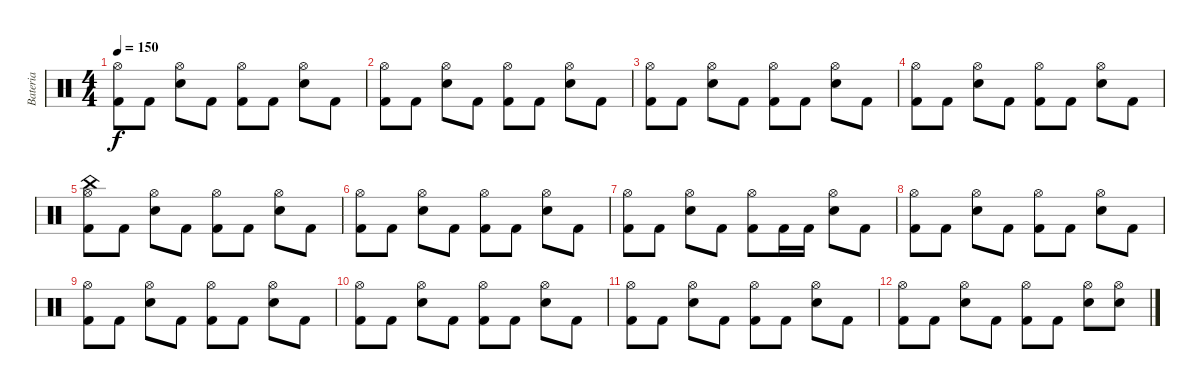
\track ("Bateria" "Bateria") {instrument percussion}
\staff {score}
\articulation defaults
\ts (4 4)
\tempo 150
\clef neutral
\ks c
("Kick (hit) 2" "Hi-Hat (open)").8{dy f} "Kick (hit) 2".8 ("Electric Snare (hit)" "Hi-Hat (open)").8 "Kick (hit) 2".8 ("Kick (hit) 2" "Hi-Hat (open)").8 "Kick (hit) 2".8 ("Electric Snare (hit)" "Hi-Hat (open)").8 "Kick (hit) 2".8 |
("Kick (hit) 2" "Hi-Hat (open)").8 "Kick (hit) 2".8 ("Electric Snare (hit)" "Hi-Hat (open)").8 "Kick (hit) 2".8 ("Kick (hit) 2" "Hi-Hat (open)").8 "Kick (hit) 2".8 ("Electric Snare (hit)" "Hi-Hat (open)").8 "Kick (hit) 2".8 |
("Kick (hit) 2" "Hi-Hat (open)").8 "Kick (hit) 2".8 ("Electric Snare (hit)" "Hi-Hat (open)").8 "Kick (hit) 2".8 ("Kick (hit) 2" "Hi-Hat (open)").8 "Kick (hit) 2".8 ("Electric Snare (hit)" "Hi-Hat (open)").8 "Kick (hit) 2".8 |
("Kick (hit) 2" "Hi-Hat (open)").8 "Kick (hit) 2".8 ("Electric Snare (hit)" "Hi-Hat (open)").8 "Kick (hit) 2".8 ("Kick (hit) 2" "Hi-Hat (open)").8 "Kick (hit) 2".8 ("Electric Snare (hit)" "Hi-Hat (open)").8 "Kick (hit) 2".8 |
("Kick (hit) 2" "China (hit)" "Hi-Hat (open)").8 "Kick (hit) 2".8 ("Electric Snare (hit)" "Hi-Hat (open)").8 "Kick (hit) 2".8 ("Kick (hit) 2" "Hi-Hat (open)").8 "Kick (hit) 2".8 ("Electric Snare (hit)" "Hi-Hat (open)").8 "Kick (hit) 2".8 |
("Kick (hit) 2" "Hi-Hat (open)").8 "Kick (hit) 2".8 ("Electric Snare (hit)" "Hi-Hat (open)").8 "Kick (hit) 2".8 ("Kick (hit) 2" "Hi-Hat (open)").8 "Kick (hit) 2".8 ("Electric Snare (hit)" "Hi-Hat (open)").8 "Kick (hit) 2".8 |
("Kick (hit) 2" "Hi-Hat (open)").8 "Kick (hit) 2".8 ("Electric Snare (hit)" "Hi-Hat (open)").8 "Kick (hit) 2".8 ("Kick (hit) 2" "Hi-Hat (open)").8 "Kick (hit) 2".16 "Kick (hit) 2".16 ("Electric Snare (hit)" "Hi-Hat (open)").8 "Kick (hit) 2".8 |
("Kick (hit) 2" "Hi-Hat (open)").8 "Kick (hit) 2".8 ("Electric Snare (hit)" "Hi-Hat (open)").8 "Kick (hit) 2".8 ("Kick (hit) 2" "Hi-Hat (open)").8 "Kick (hit) 2".8 ("Electric Snare (hit)" "Hi-Hat (open)").8 "Kick (hit) 2".8 |
("Kick (hit) 2" "Hi-Hat (open)").8 "Kick (hit) 2".8 ("Electric Snare (hit)" "Hi-Hat (open)").8 "Kick (hit) 2".8 ("Kick (hit) 2" "Hi-Hat (open)").8 "Kick (hit) 2".8 ("Electric Snare (hit)" "Hi-Hat (open)").8 "Kick (hit) 2".8 |
("Kick (hit) 2" "Hi-Hat (open)").8 "Kick (hit) 2".8 ("Electric Snare (hit)" "Hi-Hat (open)").8 "Kick (hit) 2".8 ("Kick (hit) 2" "Hi-Hat (open)").8 "Kick (hit) 2".8 ("Electric Snare (hit)" "Hi-Hat (open)").8 "Kick (hit) 2".8 |
("Kick (hit) 2" "Hi-Hat (open)").8 "Kick (hit) 2".8 ("Electric Snare (hit)" "Hi-Hat (open)").8 "Kick (hit) 2".8 ("Kick (hit) 2" "Hi-Hat (open)").8 "Kick (hit) 2".8 ("Electric Snare (hit)" "Hi-Hat (open)").8 "Kick (hit) 2".8 |
("Kick (hit) 2" "Hi-Hat (open)").8 "Kick (hit) 2".8 ("Electric Snare (hit)" "Hi-Hat (open)").8 "Kick (hit) 2".8 ("Kick (hit) 2" "Hi-Hat (open)").8 "Kick (hit) 2".8 ("Electric Snare (hit)" "Hi-Hat (open)").8 ("Electric Snare (hit)" "Hi-Hat (open)").8
